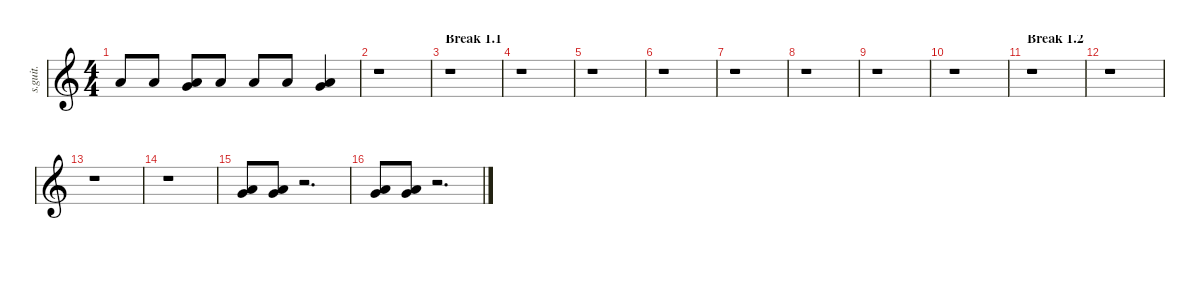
\defaultSystemsLayout 4
\hideDynamics
\bracketExtendMode nobrackets
\track ("Chris Fehn" "s.guit.") {instrument percussion}
\staff {score}
\articulation defaults
\ts (4 4)
\tempo (210 hide)
\clef g2
\ks c "Low Floor Tom (hit)".8{lyrics (0 "") lyrics (1 "") lyrics (2 "") lyrics (3 "") lyrics (4 "") dy f} "Low Floor Tom (hit)".8{lyrics (0 "") lyrics (1 "") lyrics (2 "") lyrics (3 "") lyrics (4 "")}
("Very Low Tom (hit)" "Low Floor Tom (hit)").8{lyrics (0 "") lyrics (1 "") lyrics (2 "") lyrics (3 "") lyrics (4 "")} "Low Floor Tom (hit)".8{lyrics (0 "") lyrics (1 "") lyrics (2 "") lyrics (3 "") lyrics (4 "")} "Low Floor Tom (hit)".8{lyrics (0 "") lyrics (1 "") lyrics (2 "") lyrics (3 "") lyrics (4 "")} "Low Floor Tom (hit)".8{lyrics (0 "") lyrics (1 "") lyrics (2 "") lyrics (3 "") lyrics (4 "")} ("Very Low Tom (hit)" "Low Floor Tom (hit)").4{lyrics (0 "") lyrics (1 "") lyrics (2 "") lyrics (3 "") lyrics (4 "")} |
r.1 |
\section ("" "Break 1.1")
r.1 |
r.1 |
r.1 |
r.1 |
r.1 |
r.1 |
r.1 |
r.1 |
\section ("" "Break 1.2")
\tempo (188 hide)
r.1 |
r.1 |
r.1 |
r.1 |
\tempo (195 hide)
("Very Low Tom (hit)" "Low Floor Tom (hit)").8{lyrics (0 "") lyrics (1 "") lyrics (2 "") lyrics (3 "") lyrics (4 "")} ("Very Low Tom (hit)" "Low Floor Tom (hit)").8{lyrics (0 "") lyrics (1 "") lyrics (2 "") lyrics (3 "") lyrics (4 "")} r.2{d} |
("Very Low Tom (hit)" "Low Floor Tom (hit)").8{lyrics (0 "") lyrics (1 "") lyrics (2 "") lyrics (3 "") lyrics (4 "")} ("Very Low Tom (hit)" "Low Floor Tom (hit)").8{lyrics (0 "") lyrics (1 "") lyrics (2 "") lyrics (3 "") lyrics (4 "")} r.2{d}
